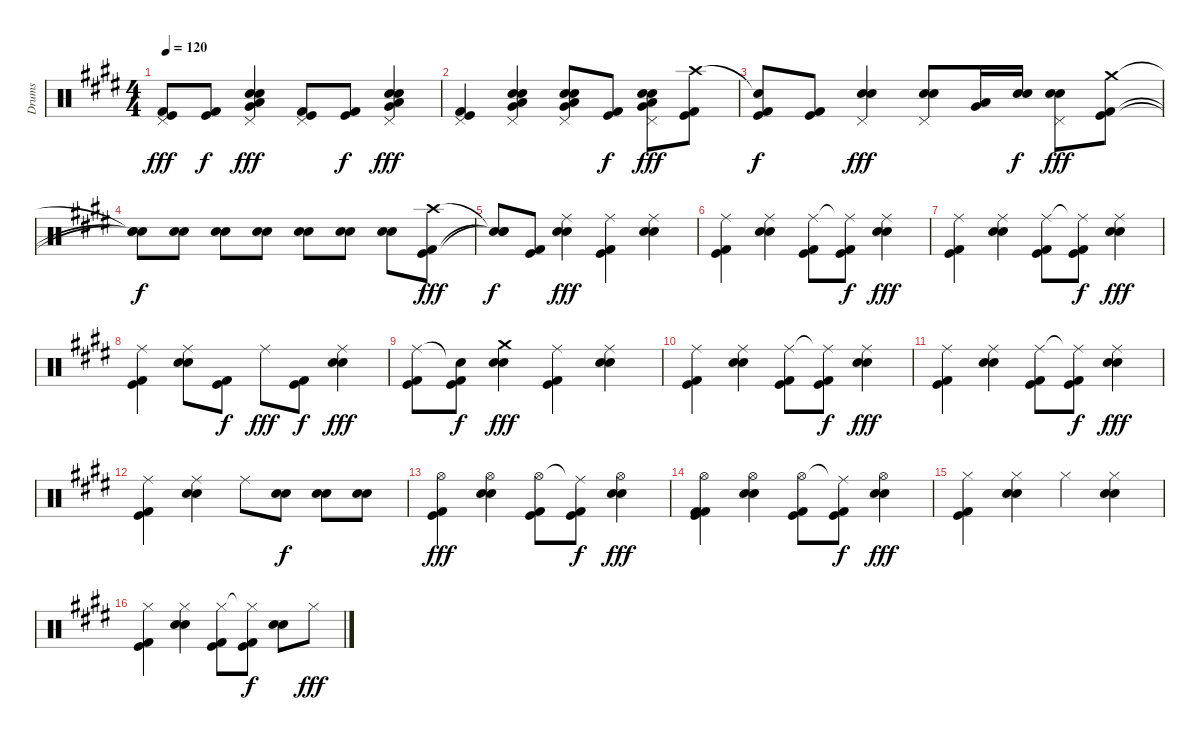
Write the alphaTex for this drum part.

\track ("Drums" "Drums") {instrument percussion}
\staff {score}
\articulation defaults
\ts (4 4)
\tempo 120
\clef neutral
\ks e
("Pedal Hi-Hat (hit)" "Kick (hit)" "Kick (hit) 2").8{dy fff} ("Kick (hit)" "Kick (hit) 2").8{dy f} ("Pedal Hi-Hat (hit)" "Snare (hit) 2" "Electric Snare (hit)" "Very Low Tom (hit)" "Low Floor Tom (hit)").4{dy fff} ("Pedal Hi-Hat (hit)" "Kick (hit)" "Kick (hit) 2").8 ("Kick (hit)" "Kick (hit) 2").8{dy f} ("Pedal Hi-Hat (hit)" "Electric Snare (hit)" "Snare (hit) 2" "Very Low Tom (hit)" "Low Floor Tom (hit)").4{dy fff} |
("Pedal Hi-Hat (hit)" "Kick (hit)" "Kick (hit) 2").4 ("Pedal Hi-Hat (hit)" "Electric Snare (hit)" "Snare (hit) 2" "Very Low Tom (hit)" "Low Floor Tom (hit)").4 ("Pedal Hi-Hat (hit)" "Electric Snare (hit)" "Snare (hit) 2" "Very Low Tom (hit)" "Low Floor Tom (hit)").8 ("Kick (hit)" "Kick (hit) 2").8{dy f} ("Pedal Hi-Hat (hit)" "Electric Snare (hit)" "Snare (hit) 2" "Very Low Tom (hit)" "Low Floor Tom (hit)").8{dy fff} ("Crash high (hit)" "Kick (hit)" "Kick (hit) 2").8 |
("Snare (hit)"{t} "Kick (hit)" "Kick (hit) 2").8{dy f} ("Kick (hit)" "Kick (hit) 2").8 ("Pedal Hi-Hat (hit)" "Electric Snare (hit)" "Snare (hit) 2").4{dy fff} ("Pedal Hi-Hat (hit)" "Electric Snare (hit)" "Snare (hit) 2").8 ("Very Low Tom (hit)" "Low Floor Tom (hit)").16 ("Electric Snare (hit)" "Snare (hit) 2").16{dy f} ("Pedal Hi-Hat (hit)" "Electric Snare (hit)" "Snare (hit) 2").8{dy fff} ("Crash medium (hit)" "Kick (hit)" "Kick (hit) 2").8 |
("Snare (hit)"{t} "Snare (hit)"{t} "Snare (hit)"{t}).8{dy f} ("Electric Snare (hit)" "Snare (hit) 2").8 ("Electric Snare (hit)" "Snare (hit) 2").8 ("Electric Snare (hit)" "Snare (hit) 2").8 ("Electric Snare (hit)" "Snare (hit) 2").8 ("Electric Snare (hit)" "Snare (hit) 2").8 ("Electric Snare (hit)" "Snare (hit) 2").8 ("Crash high (hit)" "Kick (hit)" "Kick (hit) 2").8{dy fff} |
("Snare (hit)"{t} "Snare (hit)"{t} "Snare (hit)"{t}).8{dy f} ("Kick (hit)" "Kick (hit) 2").8 ("Ride (middle)" "Electric Snare (hit)" "Snare (hit) 2").4{dy fff} ("Ride (middle)" "Kick (hit)" "Kick (hit) 2").4 ("Ride (middle)" "Electric Snare (hit)" "Snare (hit) 2").4 |
("Ride (middle)" "Kick (hit)" "Kick (hit) 2").4 ("Ride (middle)" "Electric Snare (hit)" "Snare (hit) 2").4 ("Ride (middle)" "Kick (hit)" "Kick (hit) 2").8 ("Ride (middle)"{t} "Kick (hit)" "Kick (hit) 2").8{dy f} ("Ride (middle)" "Electric Snare (hit)" "Snare (hit) 2").4{dy fff} |
("Ride (middle)" "Kick (hit)" "Kick (hit) 2").4 ("Ride (middle)" "Electric Snare (hit)" "Snare (hit) 2").4 ("Ride (middle)" "Kick (hit)" "Kick (hit) 2").8 ("Ride (middle)"{t} "Kick (hit)" "Kick (hit) 2").8{dy f} ("Ride (middle)" "Electric Snare (hit)" "Snare (hit) 2").4{dy fff} |
("Ride (middle)" "Kick (hit)" "Kick (hit) 2").4 ("Ride (middle)" "Electric Snare (hit)" "Snare (hit) 2").8 ("Kick (hit)" "Kick (hit) 2").8{dy f} "Ride (middle)".8{dy fff} ("Kick (hit) 2" "Kick (hit)").8{dy f} ("Ride (middle)" "Electric Snare (hit)" "Snare (hit) 2").4{dy fff} |
("Ride (middle)" "Kick (hit)" "Kick (hit) 2").8 ("Snare (hit)"{t} "Kick (hit)" "Kick (hit) 2").8{dy f} ("Crash medium (hit)" "Electric Snare (hit)" "Snare (hit) 2").4{dy fff} ("Ride (middle)" "Kick (hit)" "Kick (hit) 2").4 ("Ride (middle)" "Electric Snare (hit)" "Snare (hit) 2").4 |
("Ride (middle)" "Kick (hit)" "Kick (hit) 2").4 ("Ride (middle)" "Electric Snare (hit)" "Snare (hit) 2").4 ("Ride (middle)" "Kick (hit)" "Kick (hit) 2").8 ("Ride (middle)"{t} "Kick (hit)" "Kick (hit) 2").8{dy f} ("Ride (middle)" "Electric Snare (hit)" "Snare (hit) 2").4{dy fff} |
("Ride (middle)" "Kick (hit)" "Kick (hit) 2").4 ("Ride (middle)" "Electric Snare (hit)" "Snare (hit) 2").4 ("Ride (middle)" "Kick (hit)" "Kick (hit) 2").8 ("Ride (middle)"{t} "Kick (hit)" "Kick (hit) 2").8{dy f} ("Ride (middle)" "Electric Snare (hit)" "Snare (hit) 2").4{dy fff} |
("Ride (middle)" "Kick (hit)" "Kick (hit) 2").4 ("Ride (middle)" "Electric Snare (hit)" "Snare (hit) 2").4 "Ride (middle)".8 ("Electric Snare (hit)" "Snare (hit) 2").8{dy f} ("Electric Snare (hit)" "Snare (hit) 2").8 ("Electric Snare (hit)" "Snare (hit) 2").8 |
("Hi-Hat (open)" "Kick (hit)" "Kick (hit) 2").4{dy fff} ("Hi-Hat (open)" "Electric Snare (hit)" "Snare (hit) 2").4 ("Hi-Hat (open)" "Kick (hit)" "Kick (hit) 2").8 ("Ride (middle)"{t} "Kick (hit)" "Kick (hit) 2").8{dy f} ("Hi-Hat (open)" "Electric Snare (hit)" "Snare (hit) 2").4{dy fff} |
("Hi-Hat (open)" "Kick (hit) 2" "Kick (hit)" "Kick (hit) 2").4 ("Hi-Hat (open)" "Electric Snare (hit)" "Snare (hit) 2").4 ("Hi-Hat (open)" "Kick (hit)" "Kick (hit) 2").8 ("Ride (middle)"{t} "Kick (hit)" "Kick (hit) 2").8{dy f} ("Hi-Hat (open)" "Electric Snare (hit)" "Snare (hit) 2").4{dy fff} |
("Hi-Hat (closed)" "Kick (hit)" "Kick (hit) 2").4 ("Hi-Hat (closed)" "Electric Snare (hit)" "Snare (hit) 2").4 "Hi-Hat (closed)".4 ("Hi-Hat (closed)" "Electric Snare (hit)" "Snare (hit) 2").4 |
("Hi-Hat (closed)" "Kick (hit)" "Kick (hit) 2").4 ("Hi-Hat (closed)" "Electric Snare (hit)" "Snare (hit) 2").4 ("Hi-Hat (closed)" "Kick (hit)" "Kick (hit) 2").8 ("Hi-Hat (closed)"{t} "Kick (hit)" "Kick (hit) 2").8{dy f} ("Electric Snare (hit)" "Snare (hit) 2").8 "Hi-Hat (closed)".8{dy fff}
